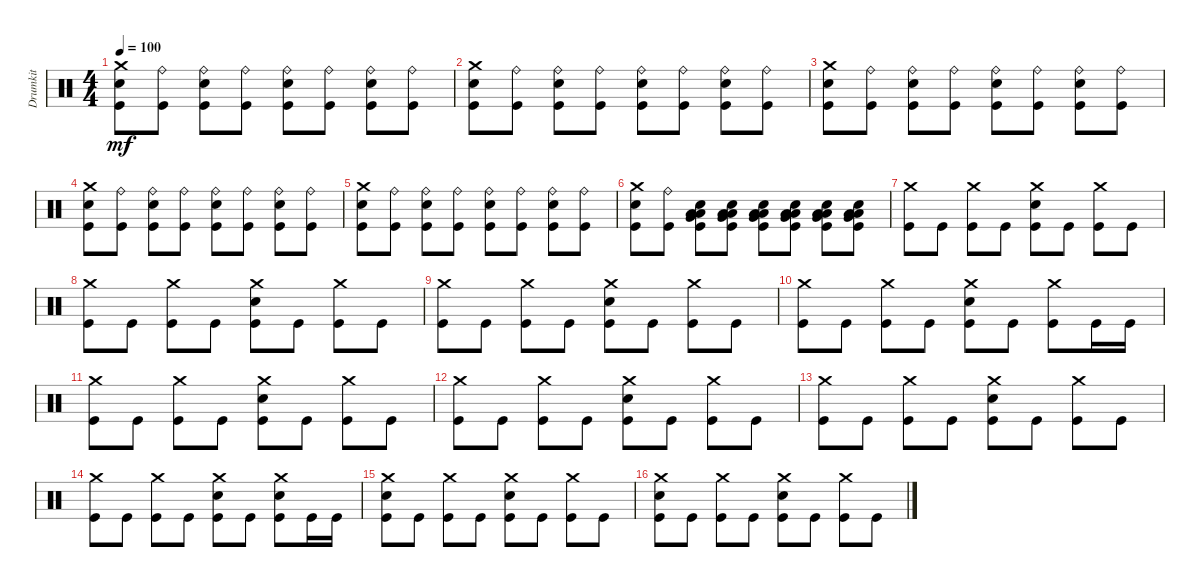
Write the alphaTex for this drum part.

\track ("Drumkit" "Drumkit") {instrument percussion}
\staff {score}
\articulation defaults
\ts (4 4)
\tempo 100
\clef neutral
\ks c
("Snare (hit) 2" "Kick (hit)" "Crash medium (hit)").8{dy mf} ("Kick (hit)" "Ride (bell)").8 ("Snare (hit) 2" "Kick (hit)" "Ride (bell)").8 ("Kick (hit)" "Ride (bell)").8 ("Kick (hit)" "Snare (hit) 2" "Ride (bell)").8 ("Kick (hit)" "Ride (bell)").8 ("Kick (hit)" "Snare (hit) 2" "Ride (bell)").8 ("Kick (hit)" "Ride (bell)").8 |
("Snare (hit) 2" "Kick (hit)" "Crash medium (hit)").8 ("Kick (hit)" "Ride (bell)").8 ("Snare (hit) 2" "Kick (hit)" "Ride (bell)").8 ("Kick (hit)" "Ride (bell)").8 ("Kick (hit)" "Snare (hit) 2" "Ride (bell)").8 ("Kick (hit)" "Ride (bell)").8 ("Kick (hit)" "Snare (hit) 2" "Ride (bell)").8 ("Kick (hit)" "Ride (bell)").8 |
("Snare (hit) 2" "Kick (hit)" "Crash medium (hit)").8 ("Kick (hit)" "Ride (bell)").8 ("Snare (hit) 2" "Kick (hit)" "Ride (bell)").8 ("Kick (hit)" "Ride (bell)").8 ("Kick (hit)" "Snare (hit) 2" "Ride (bell)").8 ("Kick (hit)" "Ride (bell)").8 ("Kick (hit)" "Snare (hit) 2" "Ride (bell)").8 ("Kick (hit)" "Ride (bell)").8 |
("Snare (hit) 2" "Kick (hit)" "Crash medium (hit)").8 ("Kick (hit)" "Ride (bell)").8 ("Snare (hit) 2" "Kick (hit)" "Ride (bell)").8 ("Kick (hit)" "Ride (bell)").8 ("Kick (hit)" "Snare (hit) 2" "Ride (bell)").8 ("Kick (hit)" "Ride (bell)").8 ("Kick (hit)" "Snare (hit) 2" "Ride (bell)").8 ("Kick (hit)" "Ride (bell)").8 |
("Snare (hit) 2" "Kick (hit)" "Crash medium (hit)").8 ("Kick (hit)" "Ride (bell)").8 ("Snare (hit) 2" "Kick (hit)" "Ride (bell)").8 ("Kick (hit)" "Ride (bell)").8 ("Kick (hit)" "Snare (hit) 2" "Ride (bell)").8 ("Kick (hit)" "Ride (bell)").8 ("Kick (hit)" "Snare (hit) 2" "Ride (bell)").8 ("Kick (hit)" "Ride (bell)").8 |
("Snare (hit) 2" "Kick (hit)" "Crash medium (hit)").8 ("Kick (hit)" "Ride (bell)").8 ("Kick (hit)" "Low Floor Tom (hit)" "Very Low Tom (hit)" "Low Tom (hit)" "Snare (hit) 2").8 ("Kick (hit)" "Low Floor Tom (hit)" "Very Low Tom (hit)" "Low Tom (hit)" "Snare (hit) 2").8 ("Kick (hit)" "Low Floor Tom (hit)" "Very Low Tom (hit)" "Low Tom (hit)" "Snare (hit) 2").8 ("Kick (hit)" "Low Floor Tom (hit)" "Very Low Tom (hit)" "Low Tom (hit)" "Snare (hit) 2").8 ("Kick (hit)" "Low Floor Tom (hit)" "Very Low Tom (hit)" "Low Tom (hit)" "Snare (hit) 2").8 ("Kick (hit)" "Low Floor Tom (hit)" "Very Low Tom (hit)" "Low Tom (hit)" "Snare (hit) 2").8 |
("Kick (hit)" "Crash medium (hit)").8 "Kick (hit)".8 ("Kick (hit)" "Crash medium (hit)").8 "Kick (hit)".8 ("Kick (hit)" "Snare (hit) 2" "Crash medium (hit)").8 "Kick (hit)".8 ("Kick (hit)" "Crash medium (hit)").8 "Kick (hit)".8 |
("Kick (hit)" "Crash medium (hit)").8 "Kick (hit)".8 ("Kick (hit)" "Crash medium (hit)").8 "Kick (hit)".8 ("Kick (hit)" "Snare (hit) 2" "Crash medium (hit)").8 "Kick (hit)".8 ("Kick (hit)" "Crash medium (hit)").8 "Kick (hit)".8 |
("Kick (hit)" "Crash medium (hit)").8 "Kick (hit)".8 ("Kick (hit)" "Crash medium (hit)").8 "Kick (hit)".8 ("Kick (hit)" "Snare (hit) 2" "Crash medium (hit)").8 "Kick (hit)".8 ("Kick (hit)" "Crash medium (hit)").8 "Kick (hit)".8 |
("Kick (hit)" "Crash medium (hit)").8 "Kick (hit)".8 ("Kick (hit)" "Crash medium (hit)").8 "Kick (hit)".8 ("Kick (hit)" "Snare (hit) 2" "Crash medium (hit)").8 "Kick (hit)".8 ("Kick (hit)" "Crash medium (hit)").8 "Kick (hit)".16 "Kick (hit)".16 |
("Kick (hit)" "Crash medium (hit)").8 "Kick (hit)".8 ("Kick (hit)" "Crash medium (hit)").8 "Kick (hit)".8 ("Kick (hit)" "Snare (hit) 2" "Crash medium (hit)").8 "Kick (hit)".8 ("Kick (hit)" "Crash medium (hit)").8 "Kick (hit)".8 |
("Kick (hit)" "Crash medium (hit)").8 "Kick (hit)".8 ("Kick (hit)" "Crash medium (hit)").8 "Kick (hit)".8 ("Kick (hit)" "Snare (hit) 2" "Crash medium (hit)").8 "Kick (hit)".8 ("Kick (hit)" "Crash medium (hit)").8 "Kick (hit)".8 |
("Kick (hit)" "Crash medium (hit)").8 "Kick (hit)".8 ("Kick (hit)" "Crash medium (hit)").8 "Kick (hit)".8 ("Kick (hit)" "Snare (hit) 2" "Crash medium (hit)").8 "Kick (hit)".8 ("Kick (hit)" "Crash medium (hit)").8 "Kick (hit)".8 |
("Kick (hit)" "Crash medium (hit)").8 "Kick (hit)".8 ("Kick (hit)" "Crash medium (hit)").8 "Kick (hit)".8 ("Kick (hit)" "Snare (hit) 2" "Crash medium (hit)").8 "Kick (hit)".8 ("Kick (hit)" "Crash medium (hit)" "Snare (hit) 2").8 "Kick (hit)".16 "Kick (hit)".16 |
("Kick (hit)" "Crash medium (hit)" "Snare (hit) 2").8 "Kick (hit)".8 ("Kick (hit)" "Crash medium (hit)").8 "Kick (hit)".8 ("Kick (hit)" "Snare (hit) 2" "Crash medium (hit)").8 "Kick (hit)".8 ("Kick (hit)" "Crash medium (hit)").8 "Kick (hit)".8 |
("Kick (hit)" "Crash medium (hit)" "Snare (hit) 2").8 "Kick (hit)".8 ("Kick (hit)" "Crash medium (hit)").8 "Kick (hit)".8 ("Kick (hit)" "Snare (hit) 2" "Crash medium (hit)").8 "Kick (hit)".8 ("Kick (hit)" "Crash medium (hit)").8 "Kick (hit)".8
